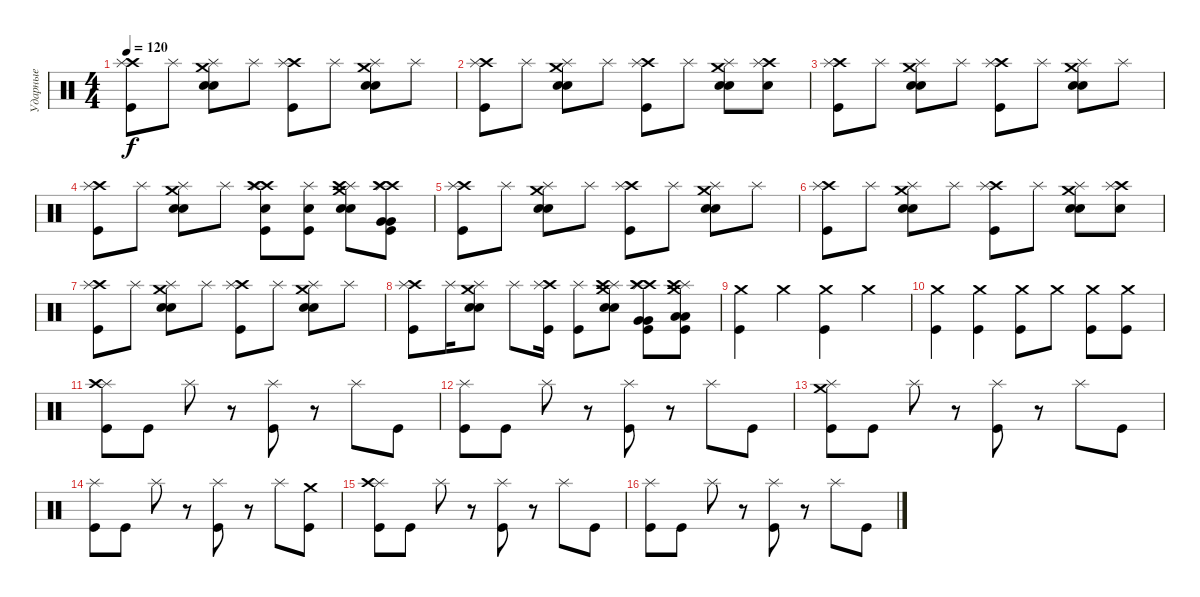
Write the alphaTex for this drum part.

\track ("Ударные" "Ударные") {instrument percussion}
\staff {score}
\articulation defaults
\ts (4 4)
\tempo 120
\clef neutral
\ks c
("Crash high (hit)" "Splash (hit)" "Kick (hit)").8{dy f} "Splash (hit)".8 ("Crash medium (hit)" "Splash (hit)" "Electric Snare (hit)" "Electric Snare (hit)").8 "Splash (hit)".8 ("Crash high (hit)" "Splash (hit)" "Kick (hit)").8 "Splash (hit)".8 ("Crash medium (hit)" "Splash (hit)" "Electric Snare (hit)" "Electric Snare (hit)").8 "Splash (hit)".8 |
("Crash high (hit)" "Splash (hit)" "Kick (hit)").8 "Splash (hit)".8 ("Crash medium (hit)" "Splash (hit)" "Electric Snare (hit)" "Electric Snare (hit)").8 "Splash (hit)".8 ("Crash high (hit)" "Splash (hit)" "Kick (hit)").8 "Splash (hit)".8 ("Crash medium (hit)" "Splash (hit)" "Electric Snare (hit)" "Electric Snare (hit)").8 ("Crash high (hit)" "Splash (hit)" "Electric Snare (hit)").8 |
("Crash high (hit)" "Splash (hit)" "Kick (hit)").8 "Splash (hit)".8 ("Crash medium (hit)" "Splash (hit)" "Electric Snare (hit)" "Electric Snare (hit)").8 "Splash (hit)".8 ("Crash high (hit)" "Splash (hit)" "Kick (hit)").8 "Splash (hit)".8 ("Crash medium (hit)" "Splash (hit)" "Electric Snare (hit)" "Electric Snare (hit)").8 "Splash (hit)".8 |
("Crash high (hit)" "Splash (hit)" "Kick (hit)").8 "Splash (hit)".8 ("Crash medium (hit)" "Splash (hit)" "Electric Snare (hit)" "Electric Snare (hit)").8 "Splash (hit)".8 ("Crash high (hit)" "Splash (hit)" "Crash high (hit)" "Electric Snare (hit)" "Kick (hit)").8 ("Splash (hit)" "Electric Snare (hit)" "Kick (hit)").8 ("Crash medium (hit)" "Splash (hit)" "Crash high (hit)" "Electric Snare (hit)" "Electric Snare (hit)").8 ("Crash high (hit)" "Splash (hit)" "Crash high (hit)" "Very Low Tom (hit)" "Very Low Tom (hit)" "Kick (hit)").8 |
("Crash high (hit)" "Splash (hit)" "Kick (hit)").8 "Splash (hit)".8 ("Crash medium (hit)" "Splash (hit)" "Electric Snare (hit)" "Electric Snare (hit)").8 "Splash (hit)".8 ("Crash high (hit)" "Splash (hit)" "Kick (hit)").8 "Splash (hit)".8 ("Crash medium (hit)" "Splash (hit)" "Electric Snare (hit)" "Electric Snare (hit)").8 "Splash (hit)".8 |
("Crash high (hit)" "Splash (hit)" "Kick (hit)").8 "Splash (hit)".8 ("Crash medium (hit)" "Splash (hit)" "Electric Snare (hit)" "Electric Snare (hit)").8 "Splash (hit)".8 ("Crash high (hit)" "Splash (hit)" "Kick (hit)").8 "Splash (hit)".8 ("Crash medium (hit)" "Splash (hit)" "Electric Snare (hit)" "Electric Snare (hit)").8 ("Crash high (hit)" "Splash (hit)" "Electric Snare (hit)").8 |
("Crash high (hit)" "Splash (hit)" "Kick (hit)").8 "Splash (hit)".8 ("Crash medium (hit)" "Splash (hit)" "Electric Snare (hit)" "Electric Snare (hit)").8 "Splash (hit)".8 ("Crash high (hit)" "Splash (hit)" "Kick (hit)").8 "Splash (hit)".8 ("Crash medium (hit)" "Splash (hit)" "Electric Snare (hit)" "Electric Snare (hit)").8 "Splash (hit)".8 |
("Crash high (hit)" "Splash (hit)" "Kick (hit)").8 "Splash (hit)".16 ("Crash medium (hit)" "Splash (hit)" "Electric Snare (hit)" "Electric Snare (hit)").8 "Splash (hit)".8 ("Crash high (hit)" "Splash (hit)" "Kick (hit)").16 ("Splash (hit)" "Kick (hit)").8 ("Crash medium (hit)" "Splash (hit)" "Crash high (hit)" "Electric Snare (hit)" "Electric Snare (hit)").8 ("Crash high (hit)" "Splash (hit)" "Crash high (hit)" "Very Low Tom (hit)" "Very Low Tom (hit)" "Kick (hit)").8 ("Crash medium (hit)" "Splash (hit)" "Crash high (hit)" "Low Floor Tom (hit)" "Low Floor Tom (hit)" "Kick (hit)").8 |
("Crash medium (hit)" "Kick (hit)").4 "Crash medium (hit)".4 ("Crash medium (hit)" "Kick (hit)").4 "Crash medium (hit)".4 |
("Crash medium (hit)" "Kick (hit)").4 ("Crash medium (hit)" "Kick (hit)").4 ("Crash medium (hit)" "Kick (hit)").8 "Crash medium (hit)".8 ("Crash medium (hit)" "Kick (hit)").8 ("Crash medium (hit)" "Kick (hit)").8 |
("Splash (hit)" "Crash high (hit)" "Kick (hit)").8 "Kick (hit)".8 "Splash (hit)".8 r.8 ("Splash (hit)" "Kick (hit)").8 r.8 "Splash (hit)".8 "Kick (hit)".8 |
("Splash (hit)" "Kick (hit)").8 "Kick (hit)".8 "Splash (hit)".8 r.8 ("Splash (hit)" "Kick (hit)").8 r.8 "Splash (hit)".8 "Kick (hit)".8 |
("Splash (hit)" "Crash medium (hit)" "Kick (hit)").8 "Kick (hit)".8 "Splash (hit)".8 r.8 ("Splash (hit)" "Kick (hit)").8 r.8 "Splash (hit)".8 "Kick (hit)".8 |
("Splash (hit)" "Kick (hit)").8 "Kick (hit)".8 "Splash (hit)".8 r.8 ("Splash (hit)" "Kick (hit)").8 r.8 "Splash (hit)".8 ("Crash medium (hit)" "Kick (hit)").8 |
("Splash (hit)" "Crash high (hit)" "Kick (hit)").8 "Kick (hit)".8 "Splash (hit)".8 r.8 ("Splash (hit)" "Kick (hit)").8 r.8 "Splash (hit)".8 "Kick (hit)".8 |
("Splash (hit)" "Kick (hit)").8 "Kick (hit)".8 "Splash (hit)".8 r.8 ("Splash (hit)" "Kick (hit)").8 r.8 "Splash (hit)".8 "Kick (hit)".8
